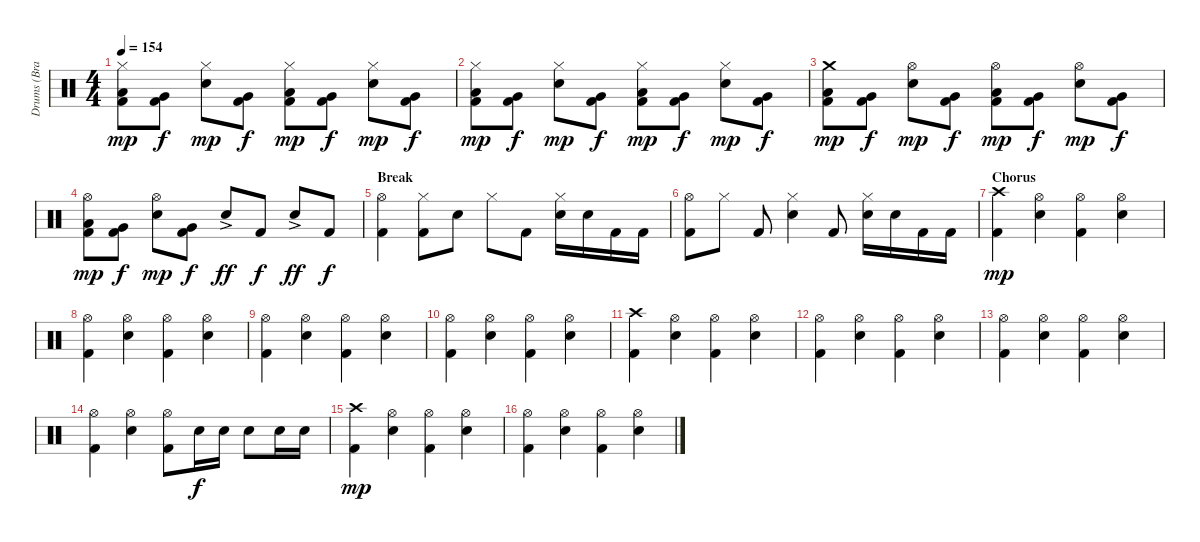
\track ("Drums (Brandon Saller)" "Drums (Bra") {instrument percussion}
\staff {score}
\articulation defaults
\ts (4 4)
\tempo 154
\clef neutral
\ks c
("Hi-Hat (closed)" "Low Tom (hit)" "Kick (hit) 2").8{dy mp} ("Very Low Tom (hit)" "Kick (hit) 2").8{dy f} ("Hi-Hat (closed)" "Electric Snare (hit)").8{dy mp} ("Very Low Tom (hit)" "Kick (hit) 2").8{dy f} ("Hi-Hat (closed)" "Low Tom (hit)" "Kick (hit) 2").8{dy mp} ("Very Low Tom (hit)" "Kick (hit) 2").8{dy f} ("Hi-Hat (closed)" "Electric Snare (hit)").8{dy mp} ("Very Low Tom (hit)" "Kick (hit) 2").8{dy f} |
("Hi-Hat (closed)" "Low Tom (hit)" "Kick (hit) 2").8{dy mp} ("Very Low Tom (hit)" "Kick (hit) 2").8{dy f} ("Hi-Hat (closed)" "Electric Snare (hit)").8{dy mp} ("Very Low Tom (hit)" "Kick (hit) 2").8{dy f} ("Hi-Hat (closed)" "Low Tom (hit)" "Kick (hit) 2").8{dy mp} ("Very Low Tom (hit)" "Kick (hit) 2").8{dy f} ("Hi-Hat (closed)" "Electric Snare (hit)").8{dy mp} ("Very Low Tom (hit)" "Kick (hit) 2").8{dy f} |
("Crash medium (hit)" "Low Tom (hit)" "Kick (hit) 2").8{dy mp} ("Very Low Tom (hit)" "Kick (hit) 2").8{dy f} ("Hi-Hat (open)" "Electric Snare (hit)").8{dy mp} ("Very Low Tom (hit)" "Kick (hit) 2").8{dy f} ("Hi-Hat (open)" "Low Tom (hit)" "Kick (hit) 2").8{dy mp} ("Very Low Tom (hit)" "Kick (hit) 2").8{dy f} ("Hi-Hat (open)" "Electric Snare (hit)").8{dy mp} ("Very Low Tom (hit)" "Kick (hit) 2").8{dy f} |
("Hi-Hat (open)" "Low Tom (hit)" "Kick (hit) 2").8{dy mp} ("Very Low Tom (hit)" "Kick (hit) 2").8{dy f} ("Hi-Hat (open)" "Electric Snare (hit)").8{dy mp} ("Very Low Tom (hit)" "Kick (hit) 2").8{dy f} "Electric Snare (hit)"{ac}.8{dy ff} "Kick (hit) 2".8{dy f} "Electric Snare (hit)"{ac}.8{dy ff} "Kick (hit) 2".8{dy f} |
\section ("" "Break")
("Hi-Hat (open)" "Kick (hit) 2").4{volume 8} ("Hi-Hat (closed)" "Kick (hit) 2").8 "Electric Snare (hit)".8 "Hi-Hat (closed)".8 "Kick (hit) 2".8 ("Hi-Hat (closed)" "Electric Snare (hit)").16 "Electric Snare (hit)".16 "Kick (hit) 2".16 "Kick (hit) 2".16 |
("Hi-Hat (open)" "Kick (hit) 2").8 "Hi-Hat (closed)".8 "Kick (hit) 2".8 ("Hi-Hat (closed)" "Electric Snare (hit)").4 "Kick (hit) 2".8 ("Hi-Hat (closed)" "Electric Snare (hit)").16 "Electric Snare (hit)".16 "Kick (hit) 2".16 "Kick (hit) 2".16 |
\section ("" "Chorus")
("Crash high (hit)" "Kick (hit) 2").4{dy mp volume 10} ("Hi-Hat (open)" "Electric Snare (hit)").4 ("Hi-Hat (open)" "Kick (hit) 2").4 ("Hi-Hat (open)" "Electric Snare (hit)").4 |
("Hi-Hat (open)" "Kick (hit) 2").4 ("Hi-Hat (open)" "Electric Snare (hit)").4 ("Hi-Hat (open)" "Kick (hit) 2").4 ("Hi-Hat (open)" "Electric Snare (hit)").4 |
("Hi-Hat (open)" "Kick (hit) 2").4 ("Hi-Hat (open)" "Electric Snare (hit)").4 ("Hi-Hat (open)" "Kick (hit) 2").4 ("Hi-Hat (open)" "Electric Snare (hit)").4 |
("Hi-Hat (open)" "Kick (hit) 2").4 ("Hi-Hat (open)" "Electric Snare (hit)").4 ("Hi-Hat (open)" "Kick (hit) 2").4 ("Hi-Hat (open)" "Electric Snare (hit)").4 |
("Crash high (hit)" "Kick (hit) 2").4 ("Hi-Hat (open)" "Electric Snare (hit)").4 ("Hi-Hat (open)" "Kick (hit) 2").4 ("Hi-Hat (open)" "Electric Snare (hit)").4 |
("Hi-Hat (open)" "Kick (hit) 2").4 ("Hi-Hat (open)" "Electric Snare (hit)").4 ("Hi-Hat (open)" "Kick (hit) 2").4 ("Hi-Hat (open)" "Electric Snare (hit)").4 |
("Hi-Hat (open)" "Kick (hit) 2").4 ("Hi-Hat (open)" "Electric Snare (hit)").4 ("Hi-Hat (open)" "Kick (hit) 2").4 ("Hi-Hat (open)" "Electric Snare (hit)").4 |
("Hi-Hat (open)" "Kick (hit) 2").4 ("Hi-Hat (open)" "Electric Snare (hit)").4 ("Hi-Hat (open)" "Kick (hit) 2").8 "Electric Snare (hit)".16{dy f} "Electric Snare (hit)".16 "Electric Snare (hit)".8 "Electric Snare (hit)".16 "Electric Snare (hit)".16 |
("Crash high (hit)" "Kick (hit) 2").4{dy mp} ("Hi-Hat (open)" "Electric Snare (hit)").4 ("Hi-Hat (open)" "Kick (hit) 2").4 ("Hi-Hat (open)" "Electric Snare (hit)").4 |
("Hi-Hat (open)" "Kick (hit) 2").4 ("Hi-Hat (open)" "Electric Snare (hit)").4 ("Hi-Hat (open)" "Kick (hit) 2").4 ("Hi-Hat (open)" "Electric Snare (hit)").4
